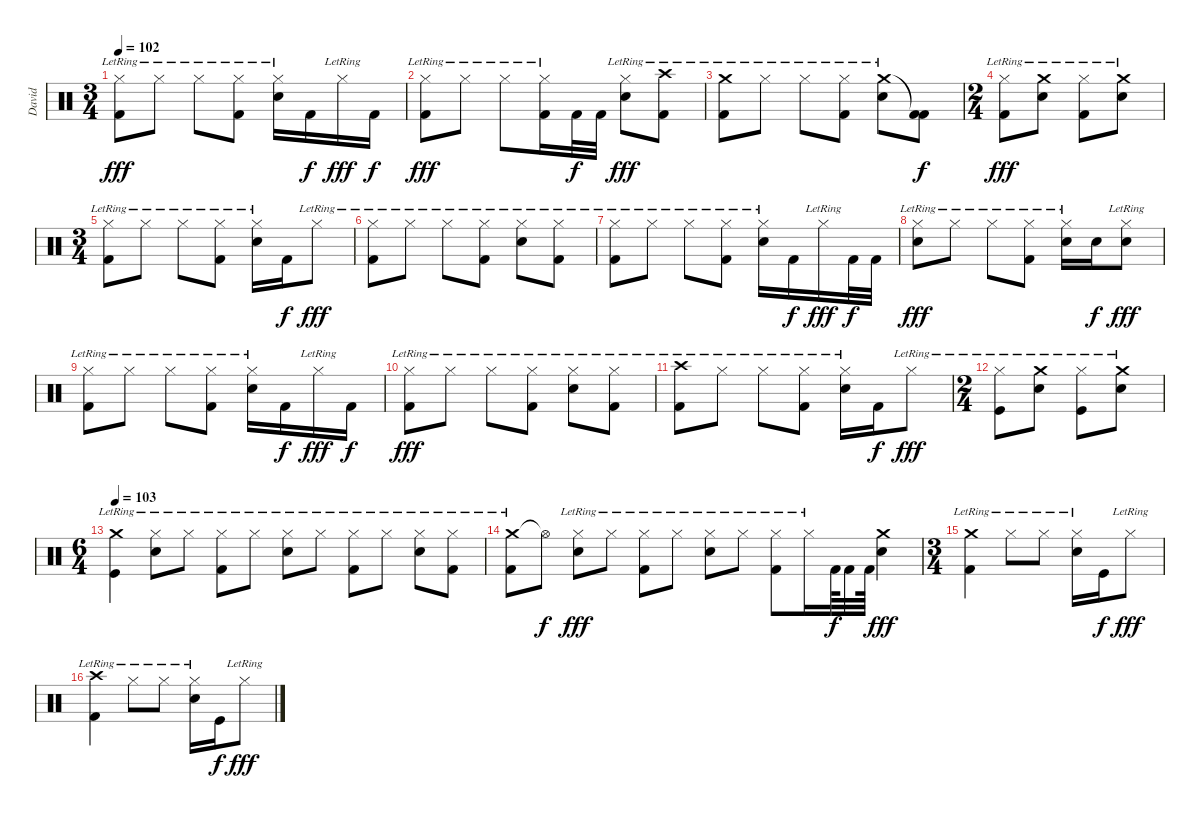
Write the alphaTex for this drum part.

\track ("David" "David") {instrument percussion}
\staff {score}
\articulation defaults
\ts (3 4)
\tempo 102
\clef neutral
\ks c
("Hi-Hat (closed)"{lr} "Kick (hit) 2").8{dy fff} "Hi-Hat (closed)"{lr}.8 "Hi-Hat (closed)"{lr}.8 ("Hi-Hat (closed)"{lr} "Kick (hit) 2").8 ("Hi-Hat (closed)"{lr} "Snare (hit) 2").16 "Kick (hit) 2".16{dy f} "Hi-Hat (closed)"{lr}.16{dy fff} "Kick (hit) 2".16{dy f} |
("Hi-Hat (closed)"{lr} "Kick (hit) 2").8{dy fff} "Hi-Hat (closed)"{lr}.8 "Hi-Hat (closed)"{lr}.8 ("Hi-Hat (closed)"{lr} "Kick (hit) 2").16 "Kick (hit) 2".32{dy f} "Kick (hit) 2".32 ("Hi-Hat (closed)"{lr} "Snare (hit) 2").8{dy fff} ("Crash high (hit)"{lr} "Kick (hit) 2").8 |
("Crash medium (hit)"{lr} "Kick (hit) 2").8 "Hi-Hat (closed)"{lr}.8 "Hi-Hat (closed)"{lr}.8 ("Hi-Hat (closed)"{lr} "Kick (hit) 2").8 ("Crash medium (hit)"{lr} "Snare (hit) 2").8 ("Kick (hit) 2"{t} "Kick (hit) 2").8{dy f} |
\ts (2 4)
("Hi-Hat (closed)"{lr} "Kick (hit) 2").8{dy fff} ("Crash medium (hit)"{lr} "Snare (hit) 2").8 ("Hi-Hat (closed)"{lr} "Kick (hit) 2").8 ("Crash medium (hit)"{lr} "Snare (hit) 2").8 |
\ts (3 4)
("Hi-Hat (closed)"{lr} "Kick (hit) 2").8 "Hi-Hat (closed)"{lr}.8 "Hi-Hat (closed)"{lr}.8 ("Hi-Hat (closed)"{lr} "Kick (hit) 2").8 ("Hi-Hat (closed)"{lr} "Snare (hit) 2").16 "Kick (hit) 2".16{dy f} "Hi-Hat (closed)"{lr}.8{dy fff} |
("Hi-Hat (closed)"{lr} "Kick (hit) 2").8 "Hi-Hat (closed)"{lr}.8 "Hi-Hat (closed)"{lr}.8 ("Hi-Hat (closed)"{lr} "Kick (hit) 2").8 ("Hi-Hat (closed)"{lr} "Snare (hit) 2").8 ("Hi-Hat (closed)"{lr} "Kick (hit) 2").8 |
("Hi-Hat (closed)"{lr} "Kick (hit) 2").8 "Hi-Hat (closed)"{lr}.8 "Hi-Hat (closed)"{lr}.8 ("Hi-Hat (closed)"{lr} "Kick (hit) 2").8 ("Hi-Hat (closed)"{lr} "Snare (hit) 2").16 "Kick (hit) 2".16{dy f} "Hi-Hat (closed)"{lr}.16{dy fff} "Kick (hit) 2".32{dy f} "Kick (hit) 2".32 |
("Hi-Hat (closed)"{lr} "Snare (hit) 2").8{dy fff} "Hi-Hat (closed)"{lr}.8 "Hi-Hat (closed)"{lr}.8 ("Hi-Hat (closed)"{lr} "Kick (hit) 2").8 ("Hi-Hat (closed)"{lr} "Snare (hit) 2").16 "Snare (hit) 2".16{dy f} ("Hi-Hat (closed)"{lr} "Snare (hit) 2").8{dy fff} |
("Hi-Hat (closed)"{lr} "Kick (hit) 2").8 "Hi-Hat (closed)"{lr}.8 "Hi-Hat (closed)"{lr}.8 ("Hi-Hat (closed)"{lr} "Kick (hit) 2").8 ("Hi-Hat (closed)"{lr} "Snare (hit) 2").16 "Kick (hit) 2".16{dy f} "Hi-Hat (closed)"{lr}.16{dy fff} "Kick (hit) 2".16{dy f} |
("Hi-Hat (closed)"{lr} "Kick (hit) 2").8{dy fff} "Hi-Hat (closed)"{lr}.8 "Hi-Hat (closed)"{lr}.8 ("Hi-Hat (closed)"{lr} "Kick (hit) 2").8 ("Hi-Hat (closed)"{lr} "Snare (hit) 2").8 ("Hi-Hat (closed)"{lr} "Kick (hit) 2").8 |
("Crash high (hit)"{lr} "Kick (hit) 2").8 "Hi-Hat (closed)"{lr}.8 "Hi-Hat (closed)"{lr}.8 ("Hi-Hat (closed)"{lr} "Kick (hit) 2").8 ("Hi-Hat (closed)"{lr} "Snare (hit) 2").16 "Kick (hit) 2".16{dy f} "Hi-Hat (closed)"{lr}.8{dy fff} |
\ts (2 4)
("Hi-Hat (closed)"{lr} "Kick (hit)").8 ("Crash medium (hit)"{lr} "Snare (hit) 2").8 ("Hi-Hat (closed)"{lr} "Kick (hit)").8 ("Crash medium (hit)"{lr} "Snare (hit) 2").8 |
\ts (6 4)
\tempo 103
("Crash medium (hit)"{lr} "Kick (hit)").4 ("Hi-Hat (closed)"{lr} "Snare (hit) 2").8 "Hi-Hat (closed)"{lr}.8 ("Hi-Hat (closed)"{lr} "Kick (hit) 2").8 "Hi-Hat (closed)"{lr}.8 ("Hi-Hat (closed)"{lr} "Snare (hit) 2").8 "Hi-Hat (closed)"{lr}.8 ("Hi-Hat (closed)"{lr} "Kick (hit) 2").8 "Hi-Hat (closed)"{lr}.8 ("Hi-Hat (closed)"{lr} "Snare (hit) 2").8 ("Hi-Hat (closed)"{lr} "Kick (hit) 2").8 |
("Crash medium (hit)"{lr} "Kick (hit) 2").8 "Hi-Hat (open)"{t}.8{dy f} ("Hi-Hat (closed)"{lr} "Snare (hit) 2").8{dy fff} "Hi-Hat (closed)"{lr}.8 ("Hi-Hat (closed)"{lr} "Kick (hit) 2").8 "Hi-Hat (closed)"{lr}.8 ("Hi-Hat (closed)"{lr} "Snare (hit) 2").8 "Hi-Hat (closed)"{lr}.8 ("Hi-Hat (closed)"{lr} "Kick (hit) 2").8 "Hi-Hat (closed)"{lr}.16 "Kick (hit) 2".64{dy f} "Kick (hit) 2".32 "Kick (hit) 2".64 ("Crash medium (hit)" "Snare (hit) 2").4{dy fff} |
\ts (3 4)
("Crash medium (hit)"{lr} "Kick (hit) 2").4 "Hi-Hat (closed)"{lr}.8 "Hi-Hat (closed)"{lr}.8 ("Hi-Hat (closed)"{lr} "Snare (hit) 2").16 "Kick (hit)".16{dy f} "Hi-Hat (closed)"{lr}.8{dy fff} |
("Crash high (hit)"{lr} "Kick (hit) 2").4 "Hi-Hat (closed)"{lr}.8 "Hi-Hat (closed)"{lr}.8 ("Hi-Hat (closed)"{lr} "Snare (hit) 2").16 "Kick (hit)".16{dy f} "Hi-Hat (closed)"{lr}.8{dy fff}
